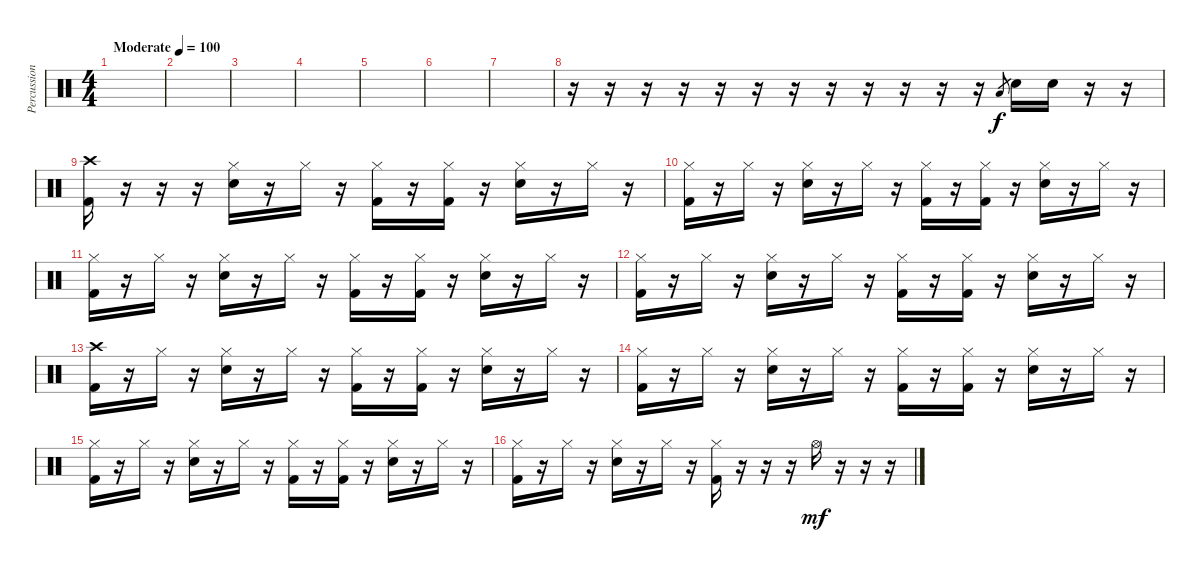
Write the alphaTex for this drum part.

\track ("Percussion" "Percussion") {instrument percussion}
\staff {score}
\articulation defaults
\ts (4 4)
\tempo (100 "Moderate")
\clef neutral
\ks c
|
|
|
|
|
|
|
r.16 r.16 r.16 r.16 r.16 r.16 r.16 r.16 r.16 r.16 r.16 r.16 "Low Tom (hit)".8{gr} "Electric Snare (hit)".16 "Electric Snare (hit)".16 r.16 r.16 |
("Kick (hit) 2" "Crash high (hit)").16 r.16 r.16 r.16 ("Hi-Hat (closed)" "Electric Snare (hit)").16 r.16 "Hi-Hat (closed)".16 r.16 ("Hi-Hat (closed)" "Kick (hit) 2").16 r.16 ("Hi-Hat (closed)" "Kick (hit) 2").16 r.16 ("Hi-Hat (closed)" "Electric Snare (hit)").16 r.16 "Hi-Hat (closed)".16 r.16 |
("Hi-Hat (closed)" "Kick (hit) 2").16 r.16 "Hi-Hat (closed)".16 r.16 ("Hi-Hat (closed)" "Electric Snare (hit)").16 r.16 "Hi-Hat (closed)".16 r.16 ("Hi-Hat (closed)" "Kick (hit) 2").16 r.16 ("Hi-Hat (closed)" "Kick (hit) 2").16 r.16 ("Hi-Hat (closed)" "Electric Snare (hit)").16 r.16 "Hi-Hat (closed)".16 r.16 |
("Hi-Hat (closed)" "Kick (hit) 2").16 r.16 "Hi-Hat (closed)".16 r.16 ("Hi-Hat (closed)" "Electric Snare (hit)").16 r.16 "Hi-Hat (closed)".16 r.16 ("Hi-Hat (closed)" "Kick (hit) 2").16 r.16 ("Hi-Hat (closed)" "Kick (hit) 2").16 r.16 ("Hi-Hat (closed)" "Electric Snare (hit)").16 r.16 "Hi-Hat (closed)".16 r.16 |
("Hi-Hat (closed)" "Kick (hit) 2").16 r.16 "Hi-Hat (closed)".16 r.16 ("Hi-Hat (closed)" "Electric Snare (hit)").16 r.16 "Hi-Hat (closed)".16 r.16 ("Hi-Hat (closed)" "Kick (hit) 2").16 r.16 ("Hi-Hat (closed)" "Kick (hit) 2").16 r.16 ("Hi-Hat (closed)" "Electric Snare (hit)").16 r.16 "Hi-Hat (closed)".16 r.16 |
("Kick (hit) 2" "Crash high (hit)").16 r.16 "Hi-Hat (closed)".16 r.16 ("Hi-Hat (closed)" "Electric Snare (hit)").16 r.16 "Hi-Hat (closed)".16 r.16 ("Hi-Hat (closed)" "Kick (hit) 2").16 r.16 ("Hi-Hat (closed)" "Kick (hit) 2").16 r.16 ("Hi-Hat (closed)" "Electric Snare (hit)").16 r.16 "Hi-Hat (closed)".16 r.16 |
("Hi-Hat (closed)" "Kick (hit) 2").16 r.16 "Hi-Hat (closed)".16 r.16 ("Hi-Hat (closed)" "Electric Snare (hit)").16 r.16 "Hi-Hat (closed)".16 r.16 ("Hi-Hat (closed)" "Kick (hit) 2").16 r.16 ("Hi-Hat (closed)" "Kick (hit) 2").16 r.16 ("Hi-Hat (closed)" "Electric Snare (hit)").16 r.16 "Hi-Hat (closed)".16 r.16 |
("Hi-Hat (closed)" "Kick (hit) 2").16 r.16 "Hi-Hat (closed)".16 r.16 ("Hi-Hat (closed)" "Electric Snare (hit)").16 r.16 "Hi-Hat (closed)".16 r.16 ("Hi-Hat (closed)" "Kick (hit) 2").16 r.16 ("Hi-Hat (closed)" "Kick (hit) 2").16 r.16 ("Hi-Hat (closed)" "Electric Snare (hit)").16 r.16 "Hi-Hat (closed)".16 r.16 |
("Hi-Hat (closed)" "Kick (hit) 2").16 r.16 "Hi-Hat (closed)".16 r.16 ("Hi-Hat (closed)" "Electric Snare (hit)").16 r.16 "Hi-Hat (closed)".16 r.16 ("Hi-Hat (closed)" "Kick (hit) 2").16 r.16 r.16 r.16 "Hi-Hat (open)".16{dy mf} r.16 r.16 r.16
